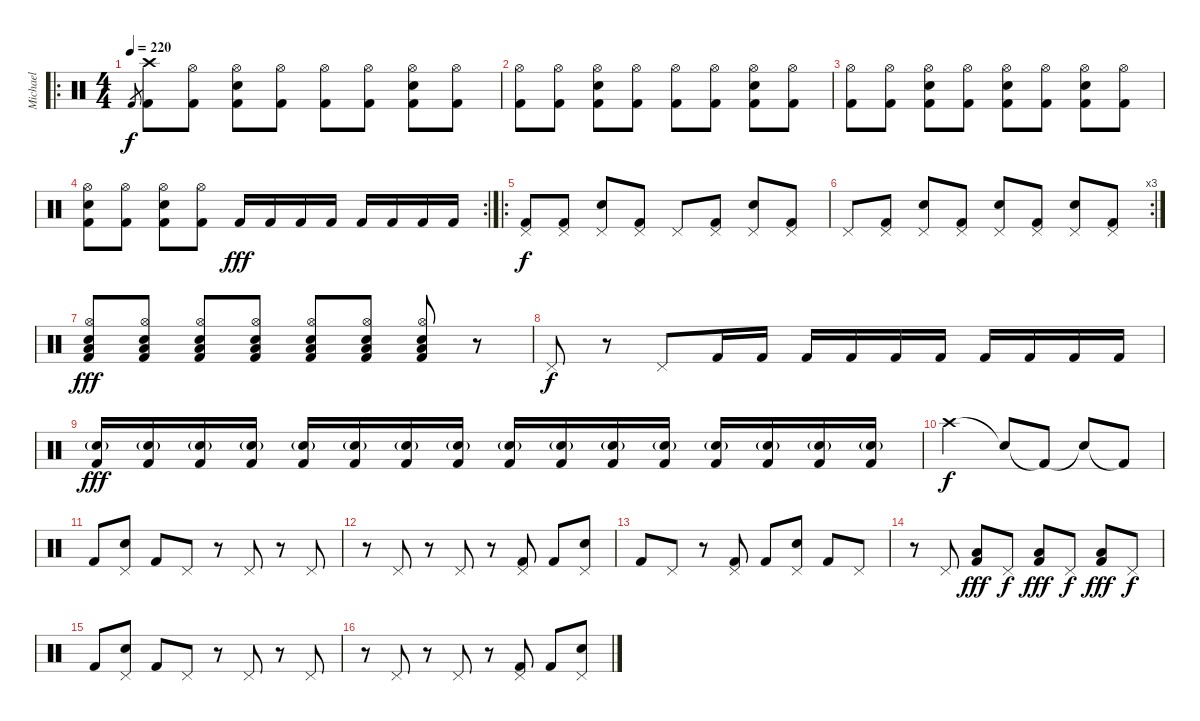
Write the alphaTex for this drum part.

\track ("Michael" "Michael") {instrument percussion}
\staff {score}
\articulation defaults
\ro
\ts (4 4)
\tempo 220
\clef neutral
\ks c "Kick (hit) 2".8{gr dy f}
("Crash high (hit)" "Kick (hit) 2").8 ("Hi-Hat (open)" "Kick (hit) 2").8 ("Hi-Hat (open)" "Electric Snare (hit)" "Kick (hit) 2").8 ("Hi-Hat (open)" "Kick (hit) 2").8 ("Hi-Hat (open)" "Kick (hit) 2").8 ("Hi-Hat (open)" "Kick (hit) 2").8 ("Hi-Hat (open)" "Electric Snare (hit)" "Kick (hit) 2").8 ("Hi-Hat (open)" "Kick (hit) 2").8 |
("Hi-Hat (open)" "Kick (hit) 2").8 ("Hi-Hat (open)" "Kick (hit) 2").8 ("Hi-Hat (open)" "Electric Snare (hit)" "Kick (hit) 2").8 ("Hi-Hat (open)" "Kick (hit) 2").8 ("Hi-Hat (open)" "Kick (hit) 2").8 ("Hi-Hat (open)" "Kick (hit) 2").8 ("Hi-Hat (open)" "Electric Snare (hit)" "Kick (hit) 2").8 ("Hi-Hat (open)" "Kick (hit) 2").8 |
("Hi-Hat (open)" "Kick (hit) 2").8 ("Hi-Hat (open)" "Kick (hit) 2").8 ("Hi-Hat (open)" "Electric Snare (hit)" "Kick (hit) 2").8 ("Hi-Hat (open)" "Kick (hit) 2").8 ("Hi-Hat (open)" "Electric Snare (hit)" "Kick (hit) 2").8 ("Hi-Hat (open)" "Kick (hit) 2").8 ("Hi-Hat (open)" "Electric Snare (hit)" "Kick (hit) 2").8 ("Hi-Hat (open)" "Kick (hit) 2").8 |
\rc 2
("Hi-Hat (open)" "Electric Snare (hit)" "Kick (hit) 2").8 ("Hi-Hat (open)" "Kick (hit) 2").8 ("Hi-Hat (open)" "Electric Snare (hit)" "Kick (hit) 2").8 ("Hi-Hat (open)" "Kick (hit) 2").8 "Kick (hit) 2".16{dy fff} "Kick (hit) 2".16 "Kick (hit) 2".16 "Kick (hit) 2".16 "Kick (hit) 2".16 "Kick (hit) 2".16 "Kick (hit) 2".16 "Kick (hit) 2".16 |
\ro
("Kick (hit) 2" "Pedal Hi-Hat (hit)").8{dy f} ("Kick (hit) 2" "Pedal Hi-Hat (hit)").8 ("Electric Snare (hit)" "Pedal Hi-Hat (hit)").8 ("Kick (hit) 2" "Pedal Hi-Hat (hit)").8 "Pedal Hi-Hat (hit)".8 ("Kick (hit) 2" "Pedal Hi-Hat (hit)").8 ("Electric Snare (hit)" "Pedal Hi-Hat (hit)").8 ("Kick (hit) 2" "Pedal Hi-Hat (hit)").8 |
\rc 3 "Pedal Hi-Hat (hit)".8
("Kick (hit) 2" "Pedal Hi-Hat (hit)").8 ("Electric Snare (hit)" "Pedal Hi-Hat (hit)").8 ("Kick (hit) 2" "Pedal Hi-Hat (hit)").8 ("Electric Snare (hit)" "Pedal Hi-Hat (hit)").8 ("Kick (hit) 2" "Pedal Hi-Hat (hit)").8 ("Electric Snare (hit)" "Pedal Hi-Hat (hit)").8 ("Kick (hit) 2" "Pedal Hi-Hat (hit)").8 |
("Hi-Hat (open)" "Low Floor Tom (hit)" "Electric Snare (hit)" "Kick (hit) 2").8{dy fff} ("Hi-Hat (open)" "Low Floor Tom (hit)" "Electric Snare (hit)" "Kick (hit) 2").8 ("Hi-Hat (open)" "Low Floor Tom (hit)" "Electric Snare (hit)" "Kick (hit) 2").8 ("Hi-Hat (open)" "Low Floor Tom (hit)" "Electric Snare (hit)" "Kick (hit) 2").8 ("Hi-Hat (open)" "Low Floor Tom (hit)" "Electric Snare (hit)" "Kick (hit) 2").8 ("Hi-Hat (open)" "Low Floor Tom (hit)" "Electric Snare (hit)" "Kick (hit) 2").8 ("Hi-Hat (open)" "Low Floor Tom (hit)" "Electric Snare (hit)" "Kick (hit) 2").8 r.8 |
"Pedal Hi-Hat (hit)".8{dy f} r.8 "Pedal Hi-Hat (hit)".8 "Kick (hit) 2".16 "Kick (hit) 2".16 "Kick (hit) 2".16 "Kick (hit) 2".16 "Kick (hit) 2".16 "Kick (hit) 2".16 "Kick (hit) 2".16 "Kick (hit) 2".16 "Kick (hit) 2".16 "Kick (hit) 2".16 |
("Snare (hit) 2"{g} "Kick (hit) 2").16{dy fff} ("Snare (hit) 2"{g} "Kick (hit) 2").16 ("Snare (hit) 2"{g} "Kick (hit) 2").16 ("Snare (hit) 2"{g} "Kick (hit) 2").16 ("Snare (hit) 2"{g} "Kick (hit) 2").16 ("Snare (hit) 2"{g} "Kick (hit) 2").16 ("Snare (hit) 2"{g} "Kick (hit) 2").16 ("Snare (hit) 2"{g} "Kick (hit) 2").16 ("Snare (hit) 2"{g} "Kick (hit) 2").16 ("Snare (hit) 2"{g} "Kick (hit) 2").16 ("Snare (hit) 2"{g} "Kick (hit) 2").16 ("Snare (hit) 2"{g} "Kick (hit) 2").16 ("Snare (hit) 2"{g} "Kick (hit) 2").16 ("Snare (hit) 2"{g} "Kick (hit) 2").16 ("Snare (hit) 2"{g} "Kick (hit) 2").16 ("Snare (hit) 2"{g} "Kick (hit) 2").16 |
"Crash high (hit)".2{dy f} "Snare (hit)"{t}.8 "Kick (hit) 2"{t}.8 "Electric Snare (hit)"{t}.8 "Kick (hit) 2"{t}.8 |
"Kick (hit) 2".8 ("Pedal Hi-Hat (hit)" "Electric Snare (hit)").8 "Kick (hit) 2".8 "Pedal Hi-Hat (hit)".8 r.8 "Pedal Hi-Hat (hit)".8 r.8 "Pedal Hi-Hat (hit)".8 |
r.8 "Pedal Hi-Hat (hit)".8 r.8 "Pedal Hi-Hat (hit)".8 r.8 ("Pedal Hi-Hat (hit)" "Kick (hit) 2").8 "Kick (hit) 2".8 ("Pedal Hi-Hat (hit)" "Electric Snare (hit)").8 |
"Kick (hit) 2".8 "Pedal Hi-Hat (hit)".8 r.8 ("Pedal Hi-Hat (hit)" "Kick (hit) 2").8 "Kick (hit) 2".8 ("Pedal Hi-Hat (hit)" "Electric Snare (hit)").8 "Kick (hit) 2".8 "Pedal Hi-Hat (hit)".8 |
r.8 "Pedal Hi-Hat (hit)".8 ("Low Floor Tom (hit)" "Kick (hit) 2").8{dy fff} "Pedal Hi-Hat (hit)".8{dy f} ("Low Floor Tom (hit)" "Kick (hit) 2").8{dy fff} "Pedal Hi-Hat (hit)".8{dy f} ("Low Floor Tom (hit)" "Kick (hit) 2").8{dy fff} "Pedal Hi-Hat (hit)".8{dy f} |
"Kick (hit) 2".8 ("Pedal Hi-Hat (hit)" "Electric Snare (hit)").8 "Kick (hit) 2".8 "Pedal Hi-Hat (hit)".8 r.8 "Pedal Hi-Hat (hit)".8 r.8 "Pedal Hi-Hat (hit)".8 |
r.8 "Pedal Hi-Hat (hit)".8 r.8 "Pedal Hi-Hat (hit)".8 r.8 ("Pedal Hi-Hat (hit)" "Kick (hit) 2").8 "Kick (hit) 2".8 ("Pedal Hi-Hat (hit)" "Electric Snare (hit)").8
